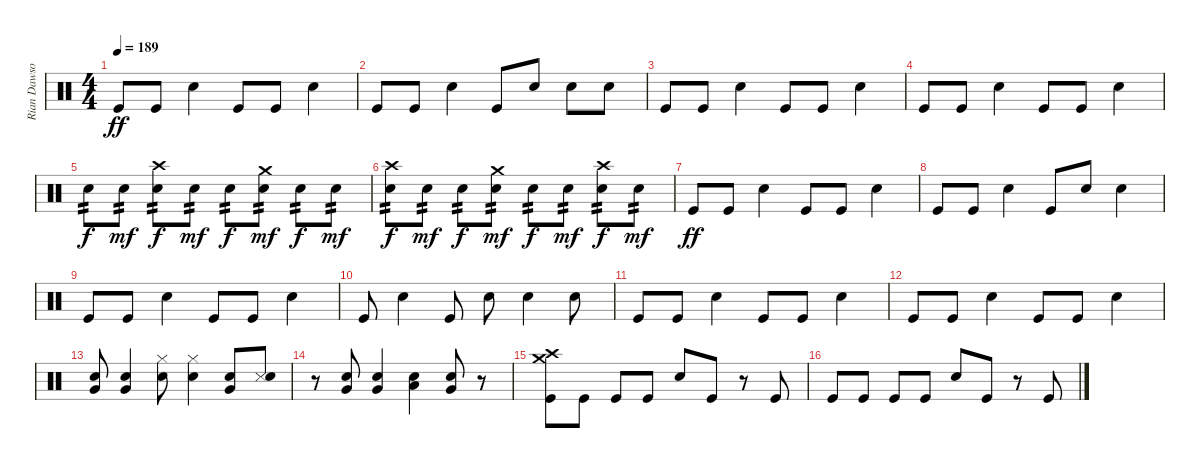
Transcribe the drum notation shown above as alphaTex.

\track ("Rian Dawson" "Rian Dawso") {instrument percussion}
\staff {score}
\articulation defaults
\ts (4 4)
\tempo 189
\clef neutral
\ks c "Kick (hit)".8{dy ff} "Kick (hit)".8 "Snare (hit) 2".4 "Kick (hit)".8 "Kick (hit)".8 "Snare (hit) 2".4
|
"Kick (hit)".8 "Kick (hit)".8 "Snare (hit) 2".4 "Kick (hit)".8 "Snare (hit) 2".8 "Snare (hit) 2".8 "Snare (hit) 2".8 |
"Kick (hit)".8 "Kick (hit)".8 "Snare (hit) 2".4 "Kick (hit)".8 "Kick (hit)".8 "Snare (hit) 2".4 |
"Kick (hit)".8 "Kick (hit)".8 "Snare (hit) 2".4 "Kick (hit)".8 "Kick (hit)".8 "Snare (hit) 2".4 |
"Snare (hit) 2".8{tp 2 dy f} "Snare (hit) 2".8{tp 2 dy mf} ("Crash high (hit)" "Snare (hit) 2").8{tp 2 dy f} "Snare (hit) 2".8{tp 2 dy mf} "Snare (hit) 2".8{tp 2 dy f} ("Crash medium (hit)" "Snare (hit) 2").8{tp 2 dy mf} "Snare (hit) 2".8{tp 2 dy f} "Snare (hit) 2".8{tp 2 dy mf} |
("Crash high (hit)" "Snare (hit) 2").8{tp 2 dy f} "Snare (hit) 2".8{tp 2 dy mf} "Snare (hit) 2".8{tp 2 dy f} ("Crash medium (hit)" "Snare (hit) 2").8{tp 2 dy mf} "Snare (hit) 2".8{tp 2 dy f} "Snare (hit) 2".8{tp 2 dy mf} ("Crash high (hit)" "Snare (hit) 2").8{tp 2 dy f} "Snare (hit) 2".8{tp 2 dy mf} |
"Kick (hit)".8{dy ff} "Kick (hit)".8 "Snare (hit) 2".4 "Kick (hit)".8 "Kick (hit)".8 "Snare (hit) 2".4 |
"Kick (hit)".8 "Kick (hit)".8 "Snare (hit) 2".4 "Kick (hit)".8 "Snare (hit) 2".8 "Snare (hit) 2".4 |
"Kick (hit)".8 "Kick (hit)".8 "Snare (hit) 2".4 "Kick (hit)".8 "Kick (hit)".8 "Snare (hit) 2".4 |
"Kick (hit)".8 "Snare (hit) 2".4 "Kick (hit)".8 "Snare (hit) 2".8 "Snare (hit) 2".4 "Snare (hit) 2".8 |
"Kick (hit)".8 "Kick (hit)".8 "Snare (hit) 2".4 "Kick (hit)".8 "Kick (hit)".8 "Snare (hit) 2".4 |
"Kick (hit)".8 "Kick (hit)".8 "Snare (hit) 2".4 "Kick (hit)".8 "Kick (hit)".8 "Snare (hit) 2".4 |
("Very Low Tom (hit)" "Snare (hit) 2").8 ("Very Low Tom (hit)" "Snare (hit) 2").4 ("Hi-Hat (closed)" "Snare (hit) 2").8 ("Hi-Hat (closed)" "Snare (hit) 2").4 ("Very Low Tom (hit)" "Snare (hit) 2").8 ("Metronome (hit)" "Snare (hit) 2").8 |
r.8 ("Very Low Tom (hit)" "Snare (hit) 2").8 ("Very Low Tom (hit)" "Snare (hit) 2").4 ("Low Tom (hit)" "Snare (hit) 2").4 ("Very Low Tom (hit)" "Snare (hit) 2").8 r.8 |
("Crash high (hit)" "Crash medium (hit)" "Kick (hit)").8 "Kick (hit)".8 "Kick (hit)".8 "Kick (hit)".8 "Snare (hit) 2".8 "Kick (hit)".8 r.8 "Kick (hit)".8 |
"Kick (hit)".8 "Kick (hit)".8 "Kick (hit)".8 "Kick (hit)".8 "Snare (hit) 2".8 "Kick (hit)".8 r.8 "Kick (hit)".8
